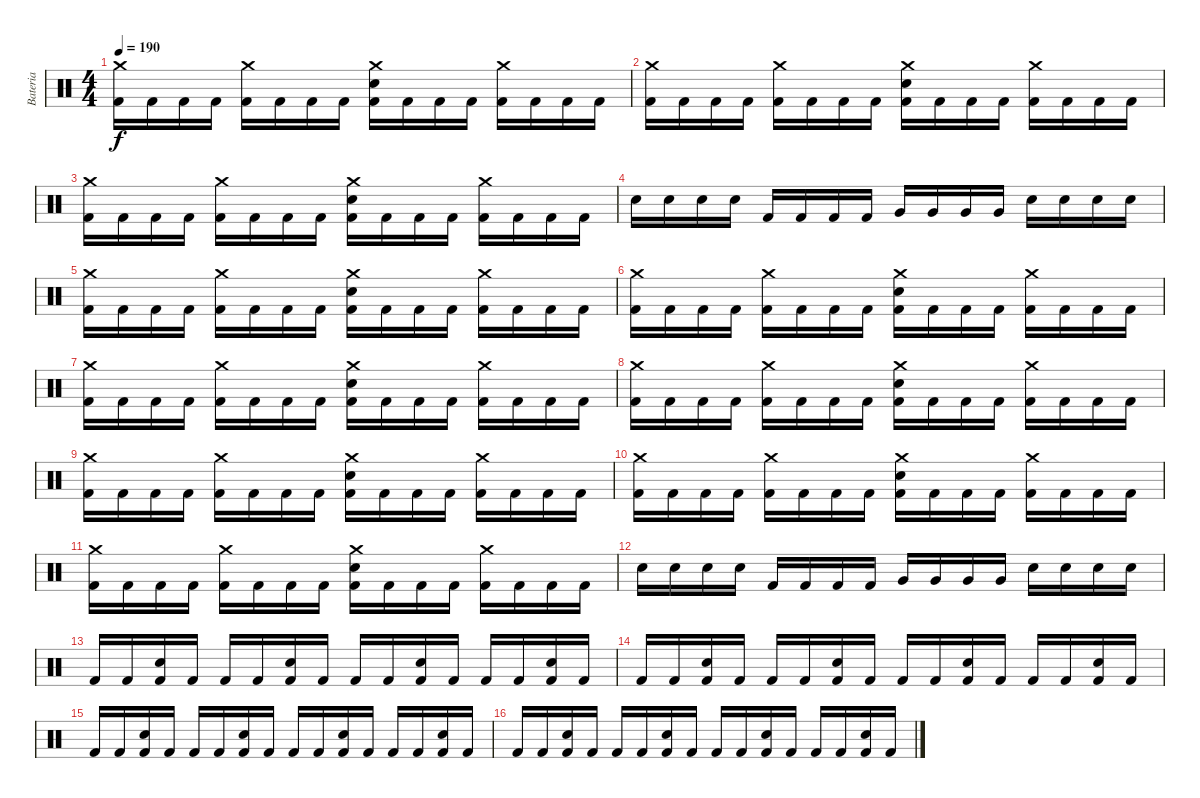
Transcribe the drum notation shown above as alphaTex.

\track ("Bateria" "Bateria") {instrument percussion}
\staff {score}
\articulation defaults
\ts (4 4)
\tempo 190
\clef neutral
\ks c
("Crash medium (hit)" "Kick (hit) 2").16{dy f} "Kick (hit) 2".16 "Kick (hit) 2".16 "Kick (hit) 2".16 ("Crash medium (hit)" "Kick (hit) 2").16 "Kick (hit) 2".16 "Kick (hit) 2".16 "Kick (hit) 2".16 ("Crash medium (hit)" "Electric Snare (hit)" "Kick (hit) 2").16 "Kick (hit) 2".16 "Kick (hit) 2".16 "Kick (hit) 2".16 ("Crash medium (hit)" "Kick (hit) 2").16 "Kick (hit) 2".16 "Kick (hit) 2".16 "Kick (hit) 2".16 |
("Crash medium (hit)" "Kick (hit) 2").16 "Kick (hit) 2".16 "Kick (hit) 2".16 "Kick (hit) 2".16 ("Crash medium (hit)" "Kick (hit) 2").16 "Kick (hit) 2".16 "Kick (hit) 2".16 "Kick (hit) 2".16 ("Crash medium (hit)" "Electric Snare (hit)" "Kick (hit) 2").16 "Kick (hit) 2".16 "Kick (hit) 2".16 "Kick (hit) 2".16 ("Crash medium (hit)" "Kick (hit) 2").16 "Kick (hit) 2".16 "Kick (hit) 2".16 "Kick (hit) 2".16 |
("Crash medium (hit)" "Kick (hit) 2").16 "Kick (hit) 2".16 "Kick (hit) 2".16 "Kick (hit) 2".16 ("Crash medium (hit)" "Kick (hit) 2").16 "Kick (hit) 2".16 "Kick (hit) 2".16 "Kick (hit) 2".16 ("Crash medium (hit)" "Electric Snare (hit)" "Kick (hit) 2").16 "Kick (hit) 2".16 "Kick (hit) 2".16 "Kick (hit) 2".16 ("Crash medium (hit)" "Kick (hit) 2").16 "Kick (hit) 2".16 "Kick (hit) 2".16 "Kick (hit) 2".16 |
"Electric Snare (hit)".16 "Electric Snare (hit)".16 "Electric Snare (hit)".16 "Electric Snare (hit)".16 "Kick (hit) 2".16 "Kick (hit) 2".16 "Kick (hit) 2".16 "Kick (hit) 2".16 "Very Low Tom (hit)".16 "Very Low Tom (hit)".16 "Very Low Tom (hit)".16 "Very Low Tom (hit)".16 "Electric Snare (hit)".16 "Electric Snare (hit)".16 "Electric Snare (hit)".16 "Electric Snare (hit)".16 |
("Crash medium (hit)" "Kick (hit) 2").16 "Kick (hit) 2".16 "Kick (hit) 2".16 "Kick (hit) 2".16 ("Crash medium (hit)" "Kick (hit) 2").16 "Kick (hit) 2".16 "Kick (hit) 2".16 "Kick (hit) 2".16 ("Crash medium (hit)" "Electric Snare (hit)" "Kick (hit) 2").16 "Kick (hit) 2".16 "Kick (hit) 2".16 "Kick (hit) 2".16 ("Crash medium (hit)" "Kick (hit) 2").16 "Kick (hit) 2".16 "Kick (hit) 2".16 "Kick (hit) 2".16 |
("Crash medium (hit)" "Kick (hit) 2").16 "Kick (hit) 2".16 "Kick (hit) 2".16 "Kick (hit) 2".16 ("Crash medium (hit)" "Kick (hit) 2").16 "Kick (hit) 2".16 "Kick (hit) 2".16 "Kick (hit) 2".16 ("Crash medium (hit)" "Electric Snare (hit)" "Kick (hit) 2").16 "Kick (hit) 2".16 "Kick (hit) 2".16 "Kick (hit) 2".16 ("Crash medium (hit)" "Kick (hit) 2").16 "Kick (hit) 2".16 "Kick (hit) 2".16 "Kick (hit) 2".16 |
("Crash medium (hit)" "Kick (hit) 2").16 "Kick (hit) 2".16 "Kick (hit) 2".16 "Kick (hit) 2".16 ("Crash medium (hit)" "Kick (hit) 2").16 "Kick (hit) 2".16 "Kick (hit) 2".16 "Kick (hit) 2".16 ("Crash medium (hit)" "Electric Snare (hit)" "Kick (hit) 2").16 "Kick (hit) 2".16 "Kick (hit) 2".16 "Kick (hit) 2".16 ("Crash medium (hit)" "Kick (hit) 2").16 "Kick (hit) 2".16 "Kick (hit) 2".16 "Kick (hit) 2".16 |
("Crash medium (hit)" "Kick (hit) 2").16 "Kick (hit) 2".16 "Kick (hit) 2".16 "Kick (hit) 2".16 ("Crash medium (hit)" "Kick (hit) 2").16 "Kick (hit) 2".16 "Kick (hit) 2".16 "Kick (hit) 2".16 ("Crash medium (hit)" "Electric Snare (hit)" "Kick (hit) 2").16 "Kick (hit) 2".16 "Kick (hit) 2".16 "Kick (hit) 2".16 ("Crash medium (hit)" "Kick (hit) 2").16 "Kick (hit) 2".16 "Kick (hit) 2".16 "Kick (hit) 2".16 |
("Crash medium (hit)" "Kick (hit) 2").16 "Kick (hit) 2".16 "Kick (hit) 2".16 "Kick (hit) 2".16 ("Crash medium (hit)" "Kick (hit) 2").16 "Kick (hit) 2".16 "Kick (hit) 2".16 "Kick (hit) 2".16 ("Crash medium (hit)" "Electric Snare (hit)" "Kick (hit) 2").16 "Kick (hit) 2".16 "Kick (hit) 2".16 "Kick (hit) 2".16 ("Crash medium (hit)" "Kick (hit) 2").16 "Kick (hit) 2".16 "Kick (hit) 2".16 "Kick (hit) 2".16 |
("Crash medium (hit)" "Kick (hit) 2").16 "Kick (hit) 2".16 "Kick (hit) 2".16 "Kick (hit) 2".16 ("Crash medium (hit)" "Kick (hit) 2").16 "Kick (hit) 2".16 "Kick (hit) 2".16 "Kick (hit) 2".16 ("Crash medium (hit)" "Electric Snare (hit)" "Kick (hit) 2").16 "Kick (hit) 2".16 "Kick (hit) 2".16 "Kick (hit) 2".16 ("Crash medium (hit)" "Kick (hit) 2").16 "Kick (hit) 2".16 "Kick (hit) 2".16 "Kick (hit) 2".16 |
("Crash medium (hit)" "Kick (hit) 2").16 "Kick (hit) 2".16 "Kick (hit) 2".16 "Kick (hit) 2".16 ("Crash medium (hit)" "Kick (hit) 2").16 "Kick (hit) 2".16 "Kick (hit) 2".16 "Kick (hit) 2".16 ("Crash medium (hit)" "Electric Snare (hit)" "Kick (hit) 2").16 "Kick (hit) 2".16 "Kick (hit) 2".16 "Kick (hit) 2".16 ("Crash medium (hit)" "Kick (hit) 2").16 "Kick (hit) 2".16 "Kick (hit) 2".16 "Kick (hit) 2".16 |
"Electric Snare (hit)".16 "Electric Snare (hit)".16 "Electric Snare (hit)".16 "Electric Snare (hit)".16 "Kick (hit) 2".16 "Kick (hit) 2".16 "Kick (hit) 2".16 "Kick (hit) 2".16 "Very Low Tom (hit)".16 "Very Low Tom (hit)".16 "Very Low Tom (hit)".16 "Very Low Tom (hit)".16 "Electric Snare (hit)".16 "Electric Snare (hit)".16 "Electric Snare (hit)".16 "Electric Snare (hit)".16 |
"Kick (hit) 2".16 "Kick (hit) 2".16 ("Electric Snare (hit)" "Kick (hit) 2").16 "Kick (hit) 2".16 "Kick (hit) 2".16 "Kick (hit) 2".16 ("Electric Snare (hit)" "Kick (hit) 2").16 "Kick (hit) 2".16 "Kick (hit) 2".16 "Kick (hit) 2".16 ("Electric Snare (hit)" "Kick (hit) 2").16 "Kick (hit) 2".16 "Kick (hit) 2".16 "Kick (hit) 2".16 ("Electric Snare (hit)" "Kick (hit) 2").16 "Kick (hit) 2".16 |
"Kick (hit) 2".16 "Kick (hit) 2".16 ("Electric Snare (hit)" "Kick (hit) 2").16 "Kick (hit) 2".16 "Kick (hit) 2".16 "Kick (hit) 2".16 ("Electric Snare (hit)" "Kick (hit) 2").16 "Kick (hit) 2".16 "Kick (hit) 2".16 "Kick (hit) 2".16 ("Electric Snare (hit)" "Kick (hit) 2").16 "Kick (hit) 2".16 "Kick (hit) 2".16 "Kick (hit) 2".16 ("Electric Snare (hit)" "Kick (hit) 2").16 "Kick (hit) 2".16 |
"Kick (hit) 2".16 "Kick (hit) 2".16 ("Electric Snare (hit)" "Kick (hit) 2").16 "Kick (hit) 2".16 "Kick (hit) 2".16 "Kick (hit) 2".16 ("Electric Snare (hit)" "Kick (hit) 2").16 "Kick (hit) 2".16 "Kick (hit) 2".16 "Kick (hit) 2".16 ("Electric Snare (hit)" "Kick (hit) 2").16 "Kick (hit) 2".16 "Kick (hit) 2".16 "Kick (hit) 2".16 ("Electric Snare (hit)" "Kick (hit) 2").16 "Kick (hit) 2".16 |
"Kick (hit) 2".16 "Kick (hit) 2".16 ("Electric Snare (hit)" "Kick (hit) 2").16 "Kick (hit) 2".16 "Kick (hit) 2".16 "Kick (hit) 2".16 ("Electric Snare (hit)" "Kick (hit) 2").16 "Kick (hit) 2".16 "Kick (hit) 2".16 "Kick (hit) 2".16 ("Electric Snare (hit)" "Kick (hit) 2").16 "Kick (hit) 2".16 "Kick (hit) 2".16 "Kick (hit) 2".16 ("Electric Snare (hit)" "Kick (hit) 2").16 "Kick (hit) 2".16
